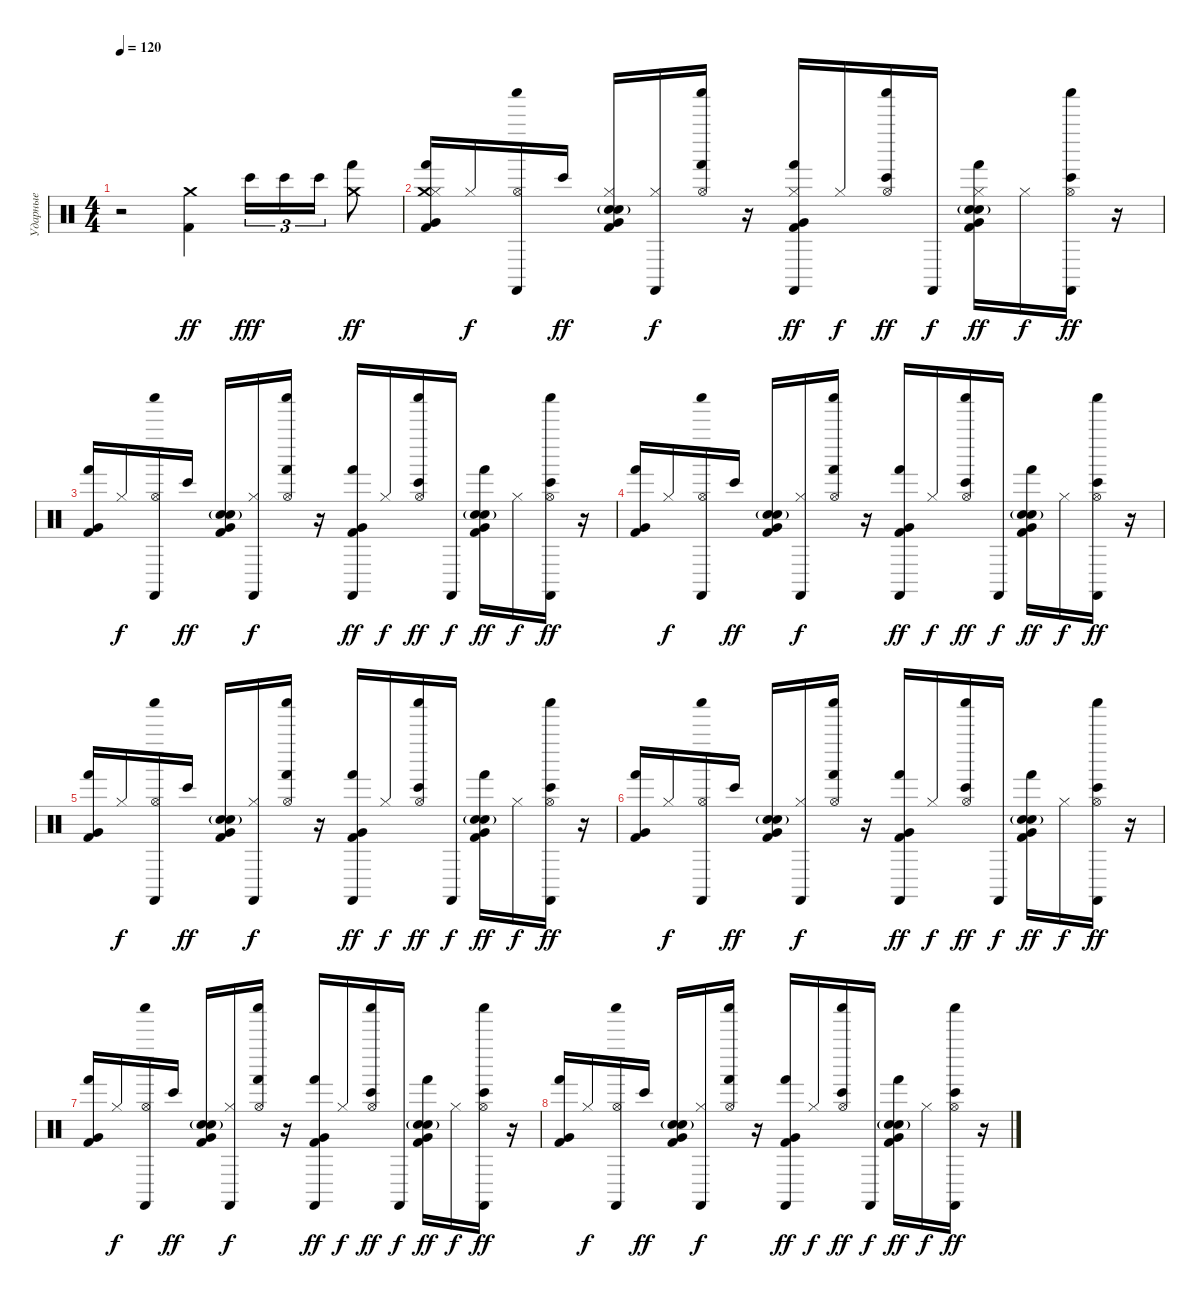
\track ("Ударные" "Ударные") {instrument percussion}
\staff {score}
\articulation defaults
\ts (4 4)
\tempo 120
\clef neutral
\ks c
r.2{dy ff} ("Kick (hit) 2" "Crash medium (hit)").4 "Bongo High (hit)".16{tu (3 2) dy fff} "Bongo High (hit)".16{tu (3 2)} "Bongo High (hit)".16{tu (3 2)} ("Crash medium (hit)" "Hand (hit)").8{dy ff} |
("Kick (hit) 2" "Crash medium (hit)" "Hi-Hat (closed)" "Very Low Tom (hit)" "Hand (hit)").16 "Hi-Hat (closed)".16{dy f} ("Castanets (hit)" "Shaker (hit)" "Hi-Hat (open)").16 "Bongo High (hit)".16{dy ff} ("Kick (hit) 2" "Hand Clap (hit)"{g} "Snare (hit) 2" "Hi-Hat (closed)" "Very Low Tom (hit)").16 ("Castanets (hit)" "Hi-Hat (closed)").16{dy f} ("Shaker (hit)" "Hi-Hat (open)" "Hand (hit)").16 r.16 ("Kick (hit) 2" "Castanets (hit)" "Hi-Hat (closed)" "Very Low Tom (hit)" "Hand (hit)").16{dy ff} "Hi-Hat (closed)".16{dy f} ("Shaker (hit)" "Hi-Hat (open)" "Bongo High (hit)").16{dy ff} "Castanets (hit)".16{dy f} ("Kick (hit) 2" "Hand Clap (hit)"{g} "Snare (hit) 2" "Hi-Hat (closed)" "Very Low Tom (hit)" "Hand (hit)").16{dy ff} "Hi-Hat (closed)".16{dy f} ("Castanets (hit)" "Shaker (hit)" "Hi-Hat (open)" "Bongo High (hit)").16{dy ff} r.16 |
("Kick (hit) 2" "Very Low Tom (hit)" "Hand (hit)").16 "Hi-Hat (closed)".16{dy f} ("Castanets (hit)" "Shaker (hit)" "Hi-Hat (open)").16 "Bongo High (hit)".16{dy ff} ("Kick (hit) 2" "Hand Clap (hit)"{g} "Snare (hit) 2" "Very Low Tom (hit)").16 ("Castanets (hit)" "Hi-Hat (closed)").16{dy f} ("Shaker (hit)" "Hi-Hat (open)" "Hand (hit)").16 r.16 ("Kick (hit) 2" "Castanets (hit)" "Very Low Tom (hit)" "Hand (hit)").16{dy ff} "Hi-Hat (closed)".16{dy f} ("Shaker (hit)" "Hi-Hat (open)" "Bongo High (hit)").16{dy ff} "Castanets (hit)".16{dy f} ("Kick (hit) 2" "Hand Clap (hit)"{g} "Snare (hit) 2" "Very Low Tom (hit)" "Hand (hit)").16{dy ff} "Hi-Hat (closed)".16{dy f} ("Castanets (hit)" "Shaker (hit)" "Hi-Hat (open)" "Bongo High (hit)").16{dy ff} r.16 |
("Kick (hit) 2" "Very Low Tom (hit)" "Hand (hit)").16 "Hi-Hat (closed)".16{dy f} ("Castanets (hit)" "Shaker (hit)" "Hi-Hat (open)").16 "Bongo High (hit)".16{dy ff} ("Kick (hit) 2" "Hand Clap (hit)"{g} "Snare (hit) 2" "Very Low Tom (hit)").16 ("Castanets (hit)" "Hi-Hat (closed)").16{dy f} ("Shaker (hit)" "Hi-Hat (open)" "Hand (hit)").16 r.16 ("Kick (hit) 2" "Castanets (hit)" "Very Low Tom (hit)" "Hand (hit)").16{dy ff} "Hi-Hat (closed)".16{dy f} ("Shaker (hit)" "Hi-Hat (open)" "Bongo High (hit)").16{dy ff} "Castanets (hit)".16{dy f} ("Kick (hit) 2" "Hand Clap (hit)"{g} "Snare (hit) 2" "Very Low Tom (hit)" "Hand (hit)").16{dy ff} "Hi-Hat (closed)".16{dy f} ("Castanets (hit)" "Shaker (hit)" "Hi-Hat (open)" "Bongo High (hit)").16{dy ff} r.16 |
("Kick (hit) 2" "Very Low Tom (hit)" "Hand (hit)").16 "Hi-Hat (closed)".16{dy f} ("Castanets (hit)" "Shaker (hit)" "Hi-Hat (open)").16 "Bongo High (hit)".16{dy ff} ("Kick (hit) 2" "Hand Clap (hit)"{g} "Snare (hit) 2" "Very Low Tom (hit)").16 ("Castanets (hit)" "Hi-Hat (closed)").16{dy f} ("Shaker (hit)" "Hi-Hat (open)" "Hand (hit)").16 r.16 ("Kick (hit) 2" "Castanets (hit)" "Very Low Tom (hit)" "Hand (hit)").16{dy ff} "Hi-Hat (closed)".16{dy f} ("Shaker (hit)" "Hi-Hat (open)" "Bongo High (hit)").16{dy ff} "Castanets (hit)".16{dy f} ("Kick (hit) 2" "Hand Clap (hit)"{g} "Snare (hit) 2" "Very Low Tom (hit)" "Hand (hit)").16{dy ff} "Hi-Hat (closed)".16{dy f} ("Castanets (hit)" "Shaker (hit)" "Hi-Hat (open)" "Bongo High (hit)").16{dy ff} r.16 |
("Kick (hit) 2" "Very Low Tom (hit)" "Hand (hit)").16 "Hi-Hat (closed)".16{dy f} ("Castanets (hit)" "Shaker (hit)" "Hi-Hat (open)").16 "Bongo High (hit)".16{dy ff} ("Kick (hit) 2" "Hand Clap (hit)"{g} "Snare (hit) 2" "Very Low Tom (hit)").16 ("Castanets (hit)" "Hi-Hat (closed)").16{dy f} ("Shaker (hit)" "Hi-Hat (open)" "Hand (hit)").16 r.16 ("Kick (hit) 2" "Castanets (hit)" "Very Low Tom (hit)" "Hand (hit)").16{dy ff} "Hi-Hat (closed)".16{dy f} ("Shaker (hit)" "Hi-Hat (open)" "Bongo High (hit)").16{dy ff} "Castanets (hit)".16{dy f} ("Kick (hit) 2" "Hand Clap (hit)"{g} "Snare (hit) 2" "Very Low Tom (hit)" "Hand (hit)").16{dy ff} "Hi-Hat (closed)".16{dy f} ("Castanets (hit)" "Shaker (hit)" "Hi-Hat (open)" "Bongo High (hit)").16{dy ff} r.16 |
("Kick (hit) 2" "Very Low Tom (hit)" "Hand (hit)").16 "Hi-Hat (closed)".16{dy f} ("Castanets (hit)" "Shaker (hit)" "Hi-Hat (open)").16 "Bongo High (hit)".16{dy ff} ("Kick (hit) 2" "Hand Clap (hit)"{g} "Snare (hit) 2" "Very Low Tom (hit)").16 ("Castanets (hit)" "Hi-Hat (closed)").16{dy f} ("Shaker (hit)" "Hi-Hat (open)" "Hand (hit)").16 r.16 ("Kick (hit) 2" "Castanets (hit)" "Very Low Tom (hit)" "Hand (hit)").16{dy ff} "Hi-Hat (closed)".16{dy f} ("Shaker (hit)" "Hi-Hat (open)" "Bongo High (hit)").16{dy ff} "Castanets (hit)".16{dy f} ("Kick (hit) 2" "Hand Clap (hit)"{g} "Snare (hit) 2" "Very Low Tom (hit)" "Hand (hit)").16{dy ff} "Hi-Hat (closed)".16{dy f} ("Castanets (hit)" "Shaker (hit)" "Hi-Hat (open)" "Bongo High (hit)").16{dy ff} r.16 |
("Kick (hit) 2" "Very Low Tom (hit)" "Hand (hit)").16 "Hi-Hat (closed)".16{dy f} ("Castanets (hit)" "Shaker (hit)" "Hi-Hat (open)").16 "Bongo High (hit)".16{dy ff} ("Kick (hit) 2" "Hand Clap (hit)"{g} "Snare (hit) 2" "Very Low Tom (hit)").16 ("Castanets (hit)" "Hi-Hat (closed)").16{dy f} ("Shaker (hit)" "Hi-Hat (open)" "Hand (hit)").16 r.16 ("Kick (hit) 2" "Castanets (hit)" "Very Low Tom (hit)" "Hand (hit)").16{dy ff} "Hi-Hat (closed)".16{dy f} ("Shaker (hit)" "Hi-Hat (open)" "Bongo High (hit)").16{dy ff} "Castanets (hit)".16{dy f} ("Kick (hit) 2" "Hand Clap (hit)"{g} "Snare (hit) 2" "Very Low Tom (hit)" "Hand (hit)").16{dy ff} "Hi-Hat (closed)".16{dy f} ("Castanets (hit)" "Shaker (hit)" "Hi-Hat (open)" "Bongo High (hit)").16{dy ff} r.16
